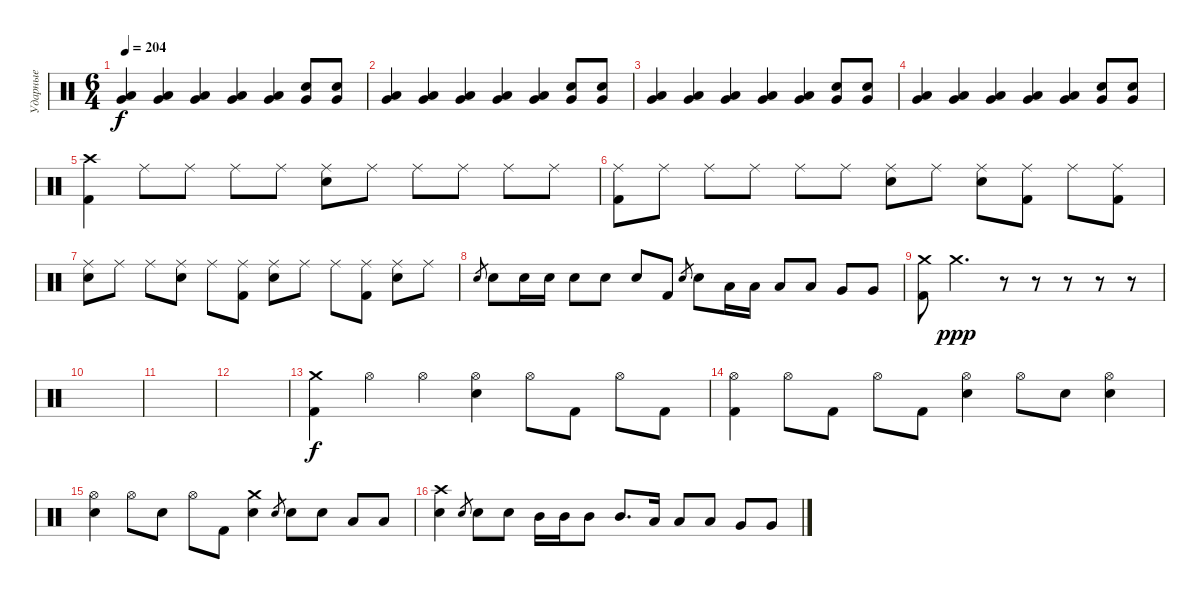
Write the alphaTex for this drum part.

\track ("Ударные" "Ударные") {instrument percussion}
\staff {score}
\articulation defaults
\ts (6 4)
\tempo 204
\clef neutral
\ks c
("Low Tom (hit)" "Very Low Tom (hit)").4{dy f} ("Low Tom (hit)" "Very Low Tom (hit)").4 ("Low Tom (hit)" "Very Low Tom (hit)").4 ("Low Tom (hit)" "Very Low Tom (hit)").4 ("Low Tom (hit)" "Very Low Tom (hit)").4 ("Snare (hit) 2" "Very Low Tom (hit)").8 ("Snare (hit) 2" "Very Low Tom (hit)").8 |
("Low Tom (hit)" "Very Low Tom (hit)").4 ("Low Tom (hit)" "Very Low Tom (hit)").4 ("Low Tom (hit)" "Very Low Tom (hit)").4 ("Low Tom (hit)" "Very Low Tom (hit)").4 ("Low Tom (hit)" "Very Low Tom (hit)").4 ("Snare (hit) 2" "Very Low Tom (hit)").8 ("Snare (hit) 2" "Very Low Tom (hit)").8 |
("Low Tom (hit)" "Very Low Tom (hit)").4 ("Low Tom (hit)" "Very Low Tom (hit)").4 ("Low Tom (hit)" "Very Low Tom (hit)").4 ("Low Tom (hit)" "Very Low Tom (hit)").4 ("Low Tom (hit)" "Very Low Tom (hit)").4 ("Snare (hit) 2" "Very Low Tom (hit)").8 ("Snare (hit) 2" "Very Low Tom (hit)").8 |
("Low Tom (hit)" "Very Low Tom (hit)").4 ("Low Tom (hit)" "Very Low Tom (hit)").4 ("Low Tom (hit)" "Very Low Tom (hit)").4 ("Low Tom (hit)" "Very Low Tom (hit)").4 ("Low Tom (hit)" "Very Low Tom (hit)").4 ("Snare (hit) 2" "Very Low Tom (hit)").8 ("Snare (hit) 2" "Very Low Tom (hit)").8 |
("Crash high (hit)" "Kick (hit) 2").4 "Ride (middle)".8 "Ride (middle)".8 "Ride (middle)".8 "Ride (middle)".8 ("Ride (middle)" "Snare (hit) 2").8 "Ride (middle)".8 "Ride (middle)".8 "Ride (middle)".8 "Ride (middle)".8 "Ride (middle)".8 |
("Ride (middle)" "Kick (hit) 2").8 "Ride (middle)".8 "Ride (middle)".8 "Ride (middle)".8 "Ride (middle)".8 "Ride (middle)".8 ("Ride (middle)" "Snare (hit) 2").8 "Ride (middle)".8 ("Ride (middle)" "Snare (hit) 2").8 ("Ride (middle)" "Kick (hit) 2").8 "Ride (middle)".8 ("Ride (middle)" "Kick (hit) 2").8 |
("Snare (hit) 2" "Ride (middle)").8 "Ride (middle)".8 "Ride (middle)".8 ("Snare (hit) 2" "Ride (middle)").8 "Ride (middle)".8 ("Ride (middle)" "Kick (hit) 2").8 ("Ride (middle)" "Snare (hit) 2").8 "Ride (middle)".8 "Ride (middle)".8 ("Ride (middle)" "Kick (hit) 2").8 ("Ride (middle)" "Snare (hit) 2").8 "Ride (middle)".8 |
"Snare (hit) 2".8{gr} "Snare (hit) 2".8 "Snare (hit) 2".16 "Snare (hit) 2".16 "Snare (hit) 2".8 "Snare (hit) 2".8 "Snare (hit) 2".8 "Kick (hit) 2".8 "Snare (hit) 2".8{gr} "Snare (hit) 2".8 "Low Tom (hit)".16 "Low Tom (hit)".16 "Low Tom (hit)".8 "Low Tom (hit)".8 "Very Low Tom (hit)".8 "Very Low Tom (hit)".8 |
("Crash medium (hit)" "Kick (hit) 2").8 "Crash medium (hit)".2{d dy ppp} r.8 r.8 r.8 r.8 r.8 |
|
|
|
("Crash medium (hit)" "Kick (hit) 2").4{dy f} "Hi-Hat (open)".4 "Hi-Hat (open)".4 ("Hi-Hat (open)" "Snare (hit) 2").4 "Hi-Hat (open)".8 "Kick (hit) 2".8 "Hi-Hat (open)".8 "Kick (hit) 2".8 |
("Hi-Hat (open)" "Kick (hit) 2").4 "Hi-Hat (open)".8 "Kick (hit) 2".8 "Hi-Hat (open)".8 "Kick (hit) 2".8 ("Hi-Hat (open)" "Snare (hit) 2").4 "Hi-Hat (open)".8 "Snare (hit) 2".8 ("Hi-Hat (open)" "Snare (hit) 2").4 |
("Hi-Hat (open)" "Snare (hit) 2").4 "Hi-Hat (open)".8 "Snare (hit) 2".8 "Hi-Hat (open)".8 "Kick (hit) 2".8 ("Crash medium (hit)" "Snare (hit) 2").4 "Snare (hit) 2".8{gr} "Snare (hit) 2".8 "Snare (hit) 2".8 "Low Tom (hit)".8 "Low Tom (hit)".8 |
("Crash high (hit)" "Snare (hit) 2").4 "Snare (hit) 2".8{gr} "Snare (hit) 2".8 "Snare (hit) 2".8 "Mid Tom (hit)".16 "Mid Tom (hit)".16 "Mid Tom (hit)".8 "Mid Tom (hit)".8{d} "Low Tom (hit)".16 "Low Tom (hit)".8 "Low Tom (hit)".8 "Very Low Tom (hit)".8 "Very Low Tom (hit)".8
